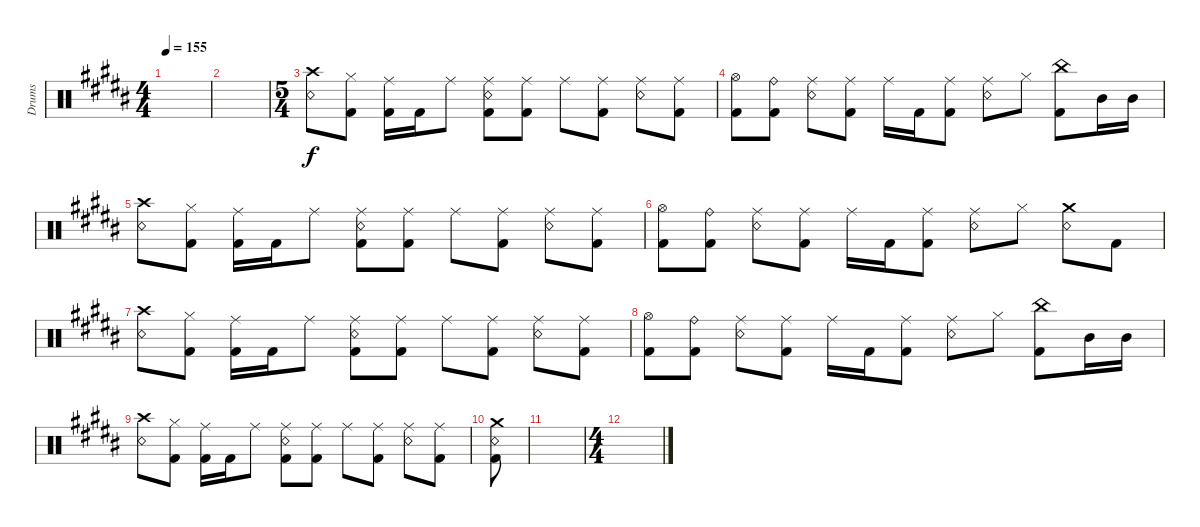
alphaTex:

\bracketExtendMode groupsimilarinstruments
\otherSystemsTrackNameOrientation horizontal
\track ("Drumkit" "Drums") {instrument percussion}
\staff {score}
\articulation defaults
\ts (4 4)
\tempo 155
\clef neutral
\ks b
|
|
\ts (5 4)
("Crash high (hit)"{acc bb} "Snare (rim shot)"{acc bb}).8{beam Down} ("Kick (hit) 2"{acc bb} "Hi-Hat (closed)"{acc bb}).8{beam Down} ("Kick (hit) 2"{acc bb} "Ride (middle)"{acc bb}).16{beam Down} "Kick (hit) 2"{acc bb}.16{beam Down} "Ride (middle)"{acc bb}.8{beam Down} ("Kick (hit) 2"{acc bb} "Snare (rim shot)"{acc bb} "Ride (middle)"{acc bb}).8{beam Down} ("Kick (hit) 2"{acc bb} "Ride (middle)"{acc bb}).8{beam Down} "Ride (middle)"{acc bb}.8{beam Down} ("Kick (hit) 2"{acc bb} "Ride (middle)"{acc bb}).8{beam Down} ("Snare (rim shot)"{acc bb} "Ride (middle)"{acc bb}).8{beam Down} ("Ride (middle)"{acc bb} "Kick (hit) 2"{acc bb}).8{beam Down} |
("Kick (hit) 2"{acc bb} "Hi-Hat (open)"{acc bb}).8{beam Down} ("Kick (hit) 2"{acc bb} "Ride (bell)"{acc bb}).8{beam Down} ("Snare (rim shot)"{acc bb} "Ride (middle)"{acc bb}).8{beam Down} ("Kick (hit) 2"{acc bb} "Ride (middle)"{acc bb}).8{beam Down} "Ride (middle)"{acc bb}.16{beam Down} "Kick (hit) 2"{acc bb}.16{beam Down} ("Ride (middle)"{acc bb} "Kick (hit) 2"{acc bb}).8{beam Down} ("Snare (rim shot)"{acc bb} "Ride (middle)"{acc bb}).8{beam Down} "Hi-Hat (closed)"{acc bb}.8{beam Down} ("Kick (hit) 2"{acc bb} "China (hit)"{acc bb}).8{beam Down} "Mid Tom (hit)"{acc bb}.16{beam Down} "Mid Tom (hit)"{acc bb}.16{beam Down} |
("Crash high (hit)"{acc bb} "Snare (rim shot)"{acc bb}).8{beam Down} ("Kick (hit) 2"{acc bb} "Hi-Hat (closed)"{acc bb}).8{beam Down} ("Kick (hit) 2"{acc bb} "Ride (middle)"{acc bb}).16{beam Down} "Kick (hit) 2"{acc bb}.16{beam Down} "Ride (middle)"{acc bb}.8{beam Down} ("Kick (hit) 2"{acc bb} "Snare (rim shot)"{acc bb} "Ride (middle)"{acc bb}).8{beam Down} ("Kick (hit) 2"{acc bb} "Ride (middle)"{acc bb}).8{beam Down} "Ride (middle)"{acc bb}.8{beam Down} ("Kick (hit) 2"{acc bb} "Ride (middle)"{acc bb}).8{beam Down} ("Snare (rim shot)"{acc bb} "Ride (middle)"{acc bb}).8{beam Down} ("Ride (middle)"{acc bb} "Kick (hit) 2"{acc bb}).8{beam Down} |
("Kick (hit) 2"{acc bb} "Hi-Hat (open)"{acc bb}).8{beam Down} ("Kick (hit) 2"{acc bb} "Ride (bell)"{acc bb}).8{beam Down} ("Snare (rim shot)"{acc bb} "Ride (middle)"{acc bb}).8{beam Down} ("Kick (hit) 2"{acc bb} "Ride (middle)"{acc bb}).8{beam Down} "Ride (middle)"{acc bb}.16{beam Down} "Kick (hit) 2"{acc bb}.16{beam Down} ("Ride (middle)"{acc bb} "Kick (hit) 2"{acc bb}).8{beam Down} ("Snare (rim shot)"{acc bb} "Ride (middle)"{acc bb}).8{beam Down} "Hi-Hat (closed)"{acc bb}.8{beam Down} ("Snare (rim shot)"{acc bb} "Crash medium (hit)"{acc bb}).8{beam Down} "Kick (hit) 2"{acc bb}.8{beam Down} |
("Crash high (hit)"{acc bb} "Snare (rim shot)"{acc bb}).8{beam Down} ("Kick (hit) 2"{acc bb} "Hi-Hat (closed)"{acc bb}).8{beam Down} ("Kick (hit) 2"{acc bb} "Ride (middle)"{acc bb}).16{beam Down} "Kick (hit) 2"{acc bb}.16{beam Down} "Ride (middle)"{acc bb}.8{beam Down} ("Kick (hit) 2"{acc bb} "Snare (rim shot)"{acc bb} "Ride (middle)"{acc bb}).8{beam Down} ("Kick (hit) 2"{acc bb} "Ride (middle)"{acc bb}).8{beam Down} "Ride (middle)"{acc bb}.8{beam Down} ("Kick (hit) 2"{acc bb} "Ride (middle)"{acc bb}).8{beam Down} ("Snare (rim shot)"{acc bb} "Ride (middle)"{acc bb}).8{beam Down} ("Ride (middle)"{acc bb} "Kick (hit) 2"{acc bb}).8{beam Down} |
("Kick (hit) 2"{acc bb} "Hi-Hat (open)"{acc bb}).8{beam Down} ("Kick (hit) 2"{acc bb} "Ride (bell)"{acc bb}).8{beam Down} ("Snare (rim shot)"{acc bb} "Ride (middle)"{acc bb}).8{beam Down} ("Kick (hit) 2"{acc bb} "Ride (middle)"{acc bb}).8{beam Down} "Ride (middle)"{acc bb}.16{beam Down} "Kick (hit) 2"{acc bb}.16{beam Down} ("Ride (middle)"{acc bb} "Kick (hit) 2"{acc bb}).8{beam Down} ("Snare (rim shot)"{acc bb} "Ride (middle)"{acc bb}).8{beam Down} "Hi-Hat (closed)"{acc bb}.8{beam Down} ("Kick (hit) 2"{acc bb} "China (hit)"{acc bb}).8{beam Down} "Mid Tom (hit)"{acc bb}.16{beam Down} "Mid Tom (hit)"{acc bb}.16{beam Down} |
("Crash high (hit)"{acc bb} "Snare (rim shot)"{acc bb}).8{beam Down} ("Kick (hit) 2"{acc bb} "Hi-Hat (closed)"{acc bb}).8{beam Down} ("Kick (hit) 2"{acc bb} "Ride (middle)"{acc bb}).16{beam Down} "Kick (hit) 2"{acc bb}.16{beam Down} "Ride (middle)"{acc bb}.8{beam Down} ("Kick (hit) 2"{acc bb} "Snare (rim shot)"{acc bb} "Ride (middle)"{acc bb}).8{beam Down} ("Kick (hit) 2"{acc bb} "Ride (middle)"{acc bb}).8{beam Down} "Ride (middle)"{acc bb}.8{beam Down} ("Kick (hit) 2"{acc bb} "Ride (middle)"{acc bb}).8{beam Down} ("Snare (rim shot)"{acc bb} "Ride (middle)"{acc bb}).8{beam Down} ("Ride (middle)"{acc bb} "Kick (hit) 2"{acc bb}).8{beam Down} |
("Crash medium (hit)"{acc bb} "Kick (hit) 2"{acc bb} "Snare (rim shot)"{acc bb}).8{beam Down} |
|
\ts (4 4)
